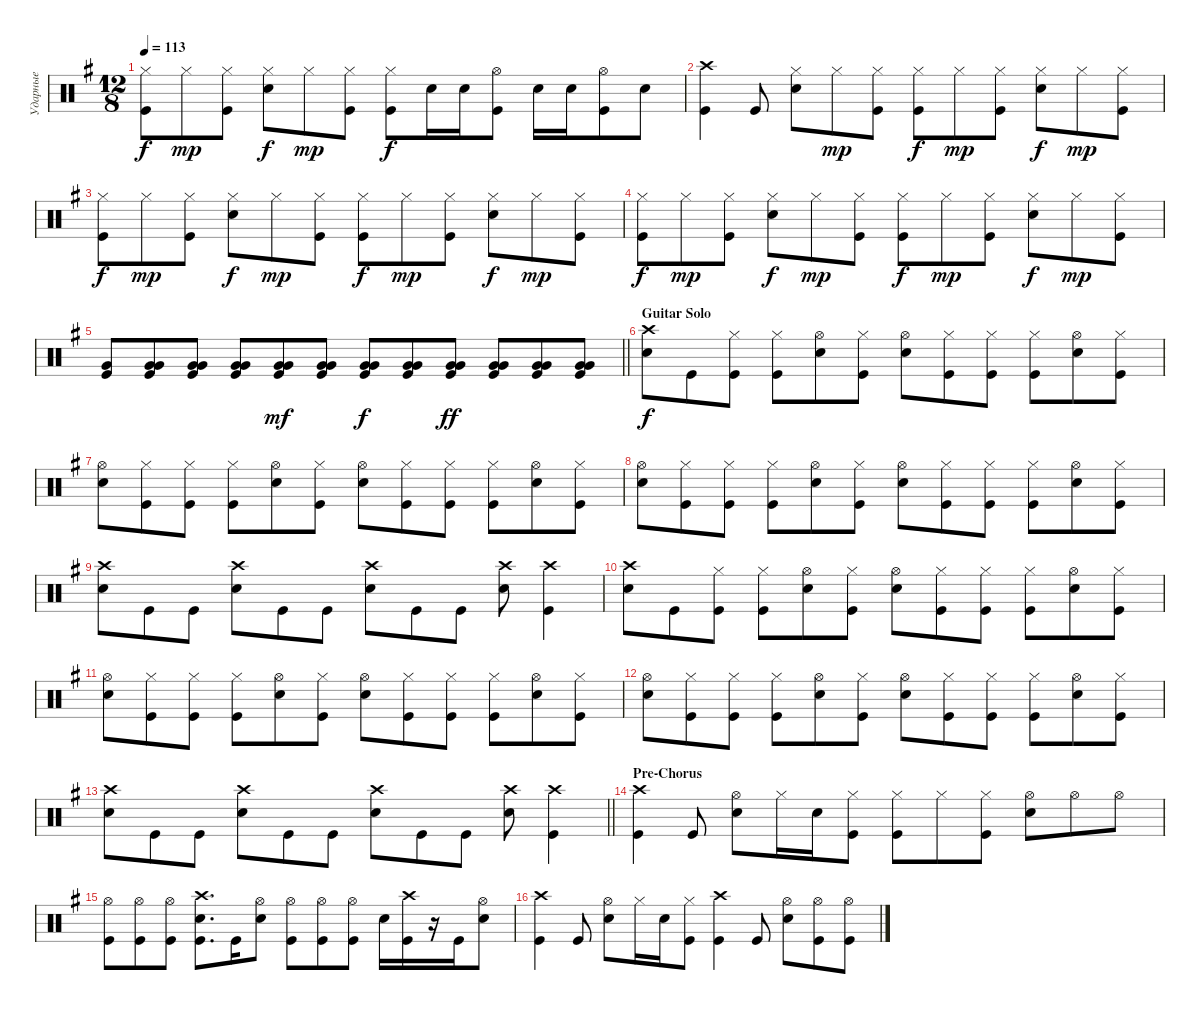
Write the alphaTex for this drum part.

\track ("Ударные" "Ударные") {instrument percussion}
\staff {score}
\articulation defaults
\ts (12 8)
\tempo 113
\clef neutral
\ks eminor
("Hi-Hat (closed)" "Kick (hit)").8{dy f} "Hi-Hat (closed)".8{dy mp} ("Hi-Hat (closed)" "Kick (hit)").8 ("Snare (hit) 2" "Hi-Hat (closed)").8{dy f} "Hi-Hat (closed)".8{dy mp} ("Hi-Hat (closed)" "Kick (hit)").8 ("Hi-Hat (closed)" "Kick (hit)").8{dy f} "Snare (hit) 2".16 "Snare (hit) 2".16 ("Kick (hit)" "Hi-Hat (open)").8 "Snare (hit) 2".16 "Snare (hit) 2".16 ("Kick (hit)" "Hi-Hat (open)").8 "Snare (hit) 2".8 |
("Crash high (hit)" "Kick (hit)").4 "Kick (hit)".8 ("Hi-Hat (closed)" "Snare (hit) 2").8 "Hi-Hat (closed)".8{dy mp} ("Hi-Hat (closed)" "Kick (hit)").8 ("Hi-Hat (closed)" "Kick (hit)").8{dy f} "Hi-Hat (closed)".8{dy mp} ("Hi-Hat (closed)" "Kick (hit)").8 ("Hi-Hat (closed)" "Snare (hit) 2").8{dy f} "Hi-Hat (closed)".8{dy mp} ("Hi-Hat (closed)" "Kick (hit)").8 |
("Hi-Hat (closed)" "Kick (hit)").8{dy f} "Hi-Hat (closed)".8{dy mp} ("Hi-Hat (closed)" "Kick (hit)").8 ("Hi-Hat (closed)" "Snare (hit) 2").8{dy f} "Hi-Hat (closed)".8{dy mp} ("Hi-Hat (closed)" "Kick (hit)").8 ("Hi-Hat (closed)" "Kick (hit)").8{dy f} "Hi-Hat (closed)".8{dy mp} ("Hi-Hat (closed)" "Kick (hit)").8 ("Hi-Hat (closed)" "Snare (hit) 2").8{dy f} "Hi-Hat (closed)".8{dy mp} ("Hi-Hat (closed)" "Kick (hit)").8 |
("Hi-Hat (closed)" "Kick (hit)").8{dy f} "Hi-Hat (closed)".8{dy mp} ("Hi-Hat (closed)" "Kick (hit)").8 ("Hi-Hat (closed)" "Snare (hit) 2").8{dy f} "Hi-Hat (closed)".8{dy mp} ("Hi-Hat (closed)" "Kick (hit)").8 ("Hi-Hat (closed)" "Kick (hit)").8{dy f} "Hi-Hat (closed)".8{dy mp} ("Hi-Hat (closed)" "Kick (hit)").8 ("Hi-Hat (closed)" "Snare (hit) 2").8{dy f} "Hi-Hat (closed)".8{dy mp} ("Hi-Hat (closed)" "Kick (hit)").8 |
\barLineRight lightlight
("Kick (hit)" "Very Low Tom (hit)").8{bd 120} ("Kick (hit)" "Very Low Tom (hit)" "Very Low Tom (hit)").8{bd 120} ("Kick (hit)" "Very Low Tom (hit)" "Very Low Tom (hit)").8{bd 120} ("Kick (hit)" "Very Low Tom (hit)" "Very Low Tom (hit)").8{bd 120} ("Kick (hit)" "Very Low Tom (hit)" "Very Low Tom (hit)").8{bd 120 dy mf} ("Kick (hit)" "Very Low Tom (hit)" "Very Low Tom (hit)").8{bd 120} ("Kick (hit)" "Very Low Tom (hit)" "Very Low Tom (hit)").8{bd 120 dy f} ("Kick (hit)" "Very Low Tom (hit)" "Very Low Tom (hit)").8{bd 120} ("Kick (hit)" "Very Low Tom (hit)" "Very Low Tom (hit)").8{bd 120 dy ff} ("Kick (hit)" "Very Low Tom (hit)" "Very Low Tom (hit)").8{bd 120} ("Kick (hit)" "Very Low Tom (hit)" "Very Low Tom (hit)").8{bd 120} ("Kick (hit)" "Very Low Tom (hit)" "Very Low Tom (hit)").8{bd 60} |
\section ("" "Guitar Solo")
("Snare (hit) 2" "Crash high (hit)").8{dy f} "Kick (hit)".8 ("Kick (hit)" "Hi-Hat (closed)").8 ("Kick (hit)" "Hi-Hat (closed)").8 ("Snare (hit) 2" "Hi-Hat (open)").8 ("Kick (hit)" "Hi-Hat (closed)").8 ("Snare (hit) 2" "Hi-Hat (open)").8 ("Kick (hit)" "Hi-Hat (closed)").8 ("Kick (hit)" "Hi-Hat (closed)").8 ("Kick (hit)" "Hi-Hat (closed)").8 ("Snare (hit) 2" "Hi-Hat (open)").8 ("Kick (hit)" "Hi-Hat (closed)").8 |
("Snare (hit) 2" "Hi-Hat (open)").8 ("Kick (hit)" "Hi-Hat (closed)").8 ("Kick (hit)" "Hi-Hat (closed)").8 ("Kick (hit)" "Hi-Hat (closed)").8 ("Snare (hit) 2" "Hi-Hat (open)").8 ("Kick (hit)" "Hi-Hat (closed)").8 ("Snare (hit) 2" "Hi-Hat (open)").8 ("Kick (hit)" "Hi-Hat (closed)").8 ("Kick (hit)" "Hi-Hat (closed)").8 ("Kick (hit)" "Hi-Hat (closed)").8 ("Snare (hit) 2" "Hi-Hat (open)").8 ("Kick (hit)" "Hi-Hat (closed)").8 |
("Snare (hit) 2" "Hi-Hat (open)").8 ("Kick (hit)" "Hi-Hat (closed)").8 ("Kick (hit)" "Hi-Hat (closed)").8 ("Kick (hit)" "Hi-Hat (closed)").8 ("Snare (hit) 2" "Hi-Hat (open)").8 ("Kick (hit)" "Hi-Hat (closed)").8 ("Snare (hit) 2" "Hi-Hat (open)").8 ("Kick (hit)" "Hi-Hat (closed)").8 ("Kick (hit)" "Hi-Hat (closed)").8 ("Kick (hit)" "Hi-Hat (closed)").8 ("Snare (hit) 2" "Hi-Hat (open)").8 ("Kick (hit)" "Hi-Hat (closed)").8 |
("Snare (hit) 2" "Crash high (hit)").8 "Kick (hit)".8 "Kick (hit)".8 ("Snare (hit) 2" "Crash high (hit)").8 "Kick (hit)".8 "Kick (hit)".8 ("Snare (hit) 2" "Crash high (hit)").8 "Kick (hit)".8 "Kick (hit)".8 ("Snare (hit) 2" "Crash high (hit)").8 ("Kick (hit)" "Crash high (hit)").4 |
("Snare (hit) 2" "Crash high (hit)").8 "Kick (hit)".8 ("Kick (hit)" "Hi-Hat (closed)").8 ("Kick (hit)" "Hi-Hat (closed)").8 ("Snare (hit) 2" "Hi-Hat (open)").8 ("Kick (hit)" "Hi-Hat (closed)").8 ("Snare (hit) 2" "Hi-Hat (open)").8 ("Kick (hit)" "Hi-Hat (closed)").8 ("Kick (hit)" "Hi-Hat (closed)").8 ("Kick (hit)" "Hi-Hat (closed)").8 ("Snare (hit) 2" "Hi-Hat (open)").8 ("Kick (hit)" "Hi-Hat (closed)").8 |
("Snare (hit) 2" "Hi-Hat (open)").8 ("Kick (hit)" "Hi-Hat (closed)").8 ("Kick (hit)" "Hi-Hat (closed)").8 ("Kick (hit)" "Hi-Hat (closed)").8 ("Snare (hit) 2" "Hi-Hat (open)").8 ("Kick (hit)" "Hi-Hat (closed)").8 ("Snare (hit) 2" "Hi-Hat (open)").8 ("Kick (hit)" "Hi-Hat (closed)").8 ("Kick (hit)" "Hi-Hat (closed)").8 ("Kick (hit)" "Hi-Hat (closed)").8 ("Snare (hit) 2" "Hi-Hat (open)").8 ("Kick (hit)" "Hi-Hat (closed)").8 |
("Snare (hit) 2" "Hi-Hat (open)").8 ("Kick (hit)" "Hi-Hat (closed)").8 ("Kick (hit)" "Hi-Hat (closed)").8 ("Kick (hit)" "Hi-Hat (closed)").8 ("Snare (hit) 2" "Hi-Hat (open)").8 ("Kick (hit)" "Hi-Hat (closed)").8 ("Snare (hit) 2" "Hi-Hat (open)").8 ("Kick (hit)" "Hi-Hat (closed)").8 ("Kick (hit)" "Hi-Hat (closed)").8 ("Kick (hit)" "Hi-Hat (closed)").8 ("Snare (hit) 2" "Hi-Hat (open)").8 ("Kick (hit)" "Hi-Hat (closed)").8 |
\barLineRight lightlight
("Snare (hit) 2" "Crash high (hit)").8 "Kick (hit)".8 "Kick (hit)".8 ("Snare (hit) 2" "Crash high (hit)").8 "Kick (hit)".8 "Kick (hit)".8 ("Snare (hit) 2" "Crash high (hit)").8 "Kick (hit)".8 "Kick (hit)".8 ("Snare (hit) 2" "Crash high (hit)").8 ("Kick (hit)" "Crash high (hit)").4 |
\section ("" "Pre-Chorus")
("Kick (hit)" "Crash high (hit)").4 "Kick (hit)".8 ("Snare (hit) 2" "Hi-Hat (open)").8 "Hi-Hat (closed)".16 "Snare (hit) 2".16 ("Hi-Hat (closed)" "Kick (hit)").8 ("Kick (hit)" "Hi-Hat (closed)").8 "Hi-Hat (closed)".8 ("Kick (hit)" "Hi-Hat (closed)").8 ("Snare (hit) 2" "Hi-Hat (open)").8 "Hi-Hat (open)".8 "Hi-Hat (open)".8 |
("Kick (hit)" "Hi-Hat (open)").8 ("Kick (hit)" "Hi-Hat (open)").8 ("Kick (hit)" "Hi-Hat (open)").8 ("Kick (hit)" "Snare (hit) 2" "Crash high (hit)").8{d} "Kick (hit)".16 ("Snare (hit) 2" "Hi-Hat (open)").8 ("Kick (hit)" "Hi-Hat (open)").8 ("Kick (hit)" "Hi-Hat (open)").8 ("Kick (hit)" "Hi-Hat (open)").8 "Snare (hit) 2".16 ("Kick (hit)" "Crash high (hit)").16 r.16 "Kick (hit)".16 ("Snare (hit) 2" "Hi-Hat (open)").8 |
("Kick (hit)" "Crash high (hit)").4 "Kick (hit)".8 ("Snare (hit) 2" "Hi-Hat (open)").8 "Hi-Hat (closed)".16 "Snare (hit) 2".16 ("Hi-Hat (closed)" "Kick (hit)").8 ("Kick (hit)" "Crash high (hit)").4 "Kick (hit)".8 ("Snare (hit) 2" "Hi-Hat (open)").8 ("Hi-Hat (open)" "Kick (hit)").8 ("Hi-Hat (open)" "Kick (hit)").8
